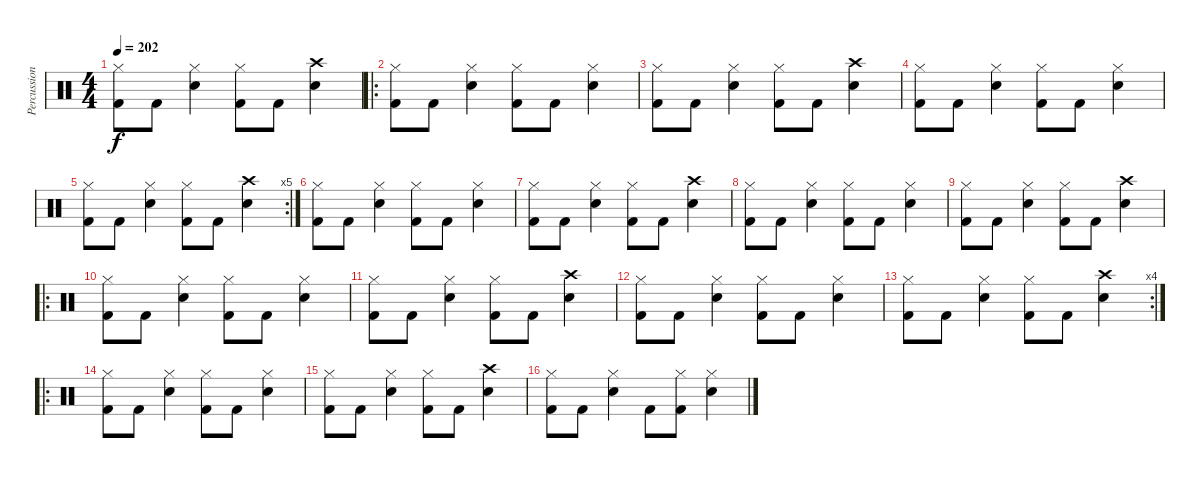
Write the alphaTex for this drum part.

\track ("Percussion" "Percussion") {instrument percussion}
\staff {score}
\articulation defaults
\ts (4 4)
\tempo 202
\clef neutral
\ks c
("Hi-Hat (closed)" "Kick (hit) 2").8{dy f} "Kick (hit) 2".8 ("Hi-Hat (closed)" "Electric Snare (hit)").4 ("Hi-Hat (closed)" "Kick (hit) 2").8 "Kick (hit) 2".8 ("Crash high (hit)" "Electric Snare (hit)").4 |
\ro
("Hi-Hat (closed)" "Kick (hit) 2").8 "Kick (hit) 2".8 ("Hi-Hat (closed)" "Electric Snare (hit)").4 ("Hi-Hat (closed)" "Kick (hit) 2").8 "Kick (hit) 2".8 ("Hi-Hat (closed)" "Electric Snare (hit)").4 |
("Hi-Hat (closed)" "Kick (hit) 2").8 "Kick (hit) 2".8 ("Hi-Hat (closed)" "Electric Snare (hit)").4 ("Hi-Hat (closed)" "Kick (hit) 2").8 "Kick (hit) 2".8 ("Crash high (hit)" "Electric Snare (hit)").4 |
("Hi-Hat (closed)" "Kick (hit) 2").8 "Kick (hit) 2".8 ("Hi-Hat (closed)" "Electric Snare (hit)").4 ("Hi-Hat (closed)" "Kick (hit) 2").8 "Kick (hit) 2".8 ("Hi-Hat (closed)" "Electric Snare (hit)").4 |
\rc 5
("Hi-Hat (closed)" "Kick (hit) 2").8 "Kick (hit) 2".8 ("Hi-Hat (closed)" "Electric Snare (hit)").4 ("Hi-Hat (closed)" "Kick (hit) 2").8 "Kick (hit) 2".8 ("Crash high (hit)" "Electric Snare (hit)").4 |
("Hi-Hat (closed)" "Kick (hit) 2").8 "Kick (hit) 2".8 ("Hi-Hat (closed)" "Electric Snare (hit)").4 ("Hi-Hat (closed)" "Kick (hit) 2").8 "Kick (hit) 2".8 ("Hi-Hat (closed)" "Electric Snare (hit)").4 |
("Hi-Hat (closed)" "Kick (hit) 2").8 "Kick (hit) 2".8 ("Hi-Hat (closed)" "Electric Snare (hit)").4 ("Hi-Hat (closed)" "Kick (hit) 2").8 "Kick (hit) 2".8 ("Crash high (hit)" "Electric Snare (hit)").4 |
("Hi-Hat (closed)" "Kick (hit) 2").8 "Kick (hit) 2".8 ("Hi-Hat (closed)" "Electric Snare (hit)").4 ("Hi-Hat (closed)" "Kick (hit) 2").8 "Kick (hit) 2".8 ("Hi-Hat (closed)" "Electric Snare (hit)").4 |
("Hi-Hat (closed)" "Kick (hit) 2").8 "Kick (hit) 2".8 ("Hi-Hat (closed)" "Electric Snare (hit)").4 ("Hi-Hat (closed)" "Kick (hit) 2").8 "Kick (hit) 2".8 ("Crash high (hit)" "Electric Snare (hit)").4 |
\ro
("Hi-Hat (closed)" "Kick (hit) 2").8 "Kick (hit) 2".8 ("Hi-Hat (closed)" "Electric Snare (hit)").4 ("Hi-Hat (closed)" "Kick (hit) 2").8 "Kick (hit) 2".8 ("Hi-Hat (closed)" "Electric Snare (hit)").4 |
("Hi-Hat (closed)" "Kick (hit) 2").8 "Kick (hit) 2".8 ("Hi-Hat (closed)" "Electric Snare (hit)").4 ("Hi-Hat (closed)" "Kick (hit) 2").8 "Kick (hit) 2".8 ("Crash high (hit)" "Electric Snare (hit)").4 |
("Hi-Hat (closed)" "Kick (hit) 2").8 "Kick (hit) 2".8 ("Hi-Hat (closed)" "Electric Snare (hit)").4 ("Hi-Hat (closed)" "Kick (hit) 2").8 "Kick (hit) 2".8 ("Hi-Hat (closed)" "Electric Snare (hit)").4 |
\rc 4
("Hi-Hat (closed)" "Kick (hit) 2").8 "Kick (hit) 2".8 ("Hi-Hat (closed)" "Electric Snare (hit)").4 ("Hi-Hat (closed)" "Kick (hit) 2").8 "Kick (hit) 2".8 ("Crash high (hit)" "Electric Snare (hit)").4 |
\ro
("Hi-Hat (closed)" "Kick (hit) 2").8 "Kick (hit) 2".8 ("Hi-Hat (closed)" "Electric Snare (hit)").4 ("Hi-Hat (closed)" "Kick (hit) 2").8 "Kick (hit) 2".8 ("Hi-Hat (closed)" "Electric Snare (hit)").4 |
("Hi-Hat (closed)" "Kick (hit) 2").8 "Kick (hit) 2".8 ("Hi-Hat (closed)" "Electric Snare (hit)").4 ("Hi-Hat (closed)" "Kick (hit) 2").8 "Kick (hit) 2".8 ("Crash high (hit)" "Electric Snare (hit)").4 |
("Hi-Hat (closed)" "Kick (hit) 2").8 "Kick (hit) 2".8 ("Hi-Hat (closed)" "Electric Snare (hit)").4 "Kick (hit) 2".8 ("Hi-Hat (closed)" "Kick (hit) 2").8 ("Hi-Hat (closed)" "Electric Snare (hit)").4
